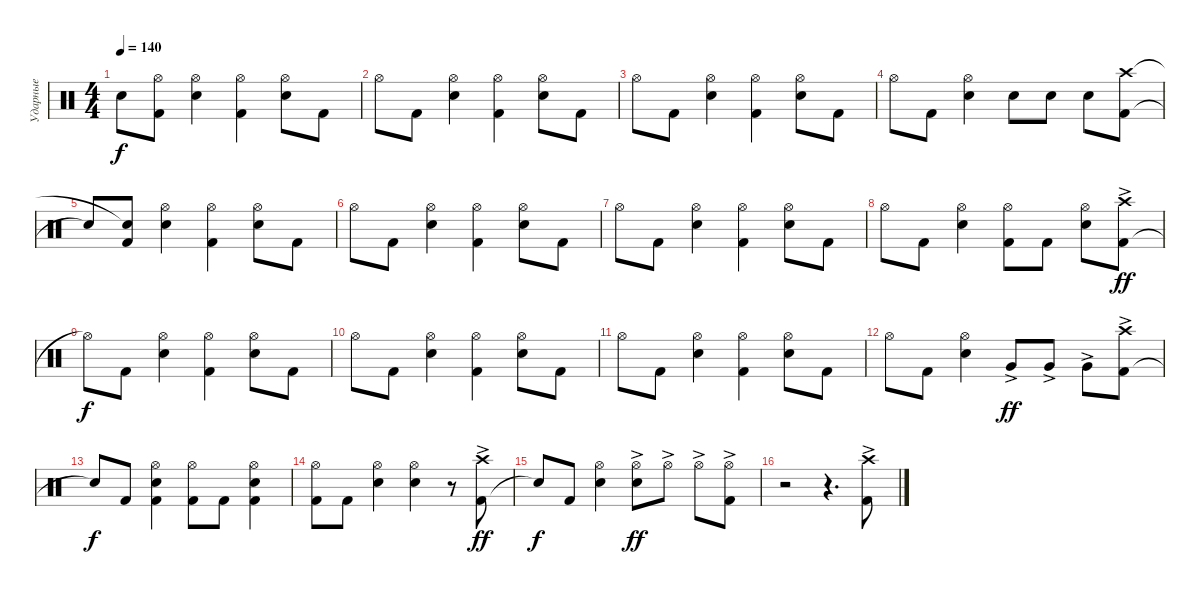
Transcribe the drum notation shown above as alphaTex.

\track ("Ударные" "Ударные") {instrument percussion}
\staff {score}
\articulation defaults
\ts (4 4)
\tempo 140
\clef neutral
\ks c "Snare (hit)"{t}.8{dy f}
("Kick (hit) 2" "Hi-Hat (open)"{t}).8 ("Snare (hit) 2" "Hi-Hat (open)").4 ("Kick (hit) 2" "Hi-Hat (open)").4 ("Snare (hit) 2" "Hi-Hat (open)").8 "Kick (hit) 2".8 |
"Hi-Hat (open)".8 "Kick (hit) 2".8 ("Snare (hit) 2" "Hi-Hat (open)").4 ("Kick (hit) 2" "Hi-Hat (open)").4 ("Snare (hit) 2" "Hi-Hat (open)").8 "Kick (hit) 2".8 |
"Hi-Hat (open)".8 "Kick (hit) 2".8 ("Snare (hit) 2" "Hi-Hat (open)").4 ("Kick (hit) 2" "Hi-Hat (open)").4 ("Snare (hit) 2" "Hi-Hat (open)").8 "Kick (hit) 2".8 |
"Hi-Hat (open)".8 "Kick (hit) 2".8 ("Snare (hit) 2" "Hi-Hat (open)").4 "Snare (hit) 2".8 "Snare (hit) 2".8 "Snare (hit) 2".8 ("Kick (hit) 2" "Crash high (hit)").8 |
"Snare (hit)"{t}.8 ("Kick (hit) 2" "Snare (hit)"{t}).8 ("Snare (hit) 2" "Hi-Hat (open)").4 ("Kick (hit) 2" "Hi-Hat (open)").4 ("Snare (hit) 2" "Hi-Hat (open)").8 "Kick (hit) 2".8 |
"Hi-Hat (open)".8 "Kick (hit) 2".8 ("Snare (hit) 2" "Hi-Hat (open)").4 ("Kick (hit) 2" "Hi-Hat (open)").4 ("Snare (hit) 2" "Hi-Hat (open)").8 "Kick (hit) 2".8 |
"Hi-Hat (open)".8 "Kick (hit) 2".8 ("Snare (hit) 2" "Hi-Hat (open)").4 ("Kick (hit) 2" "Hi-Hat (open)").4 ("Snare (hit) 2" "Hi-Hat (open)").8 "Kick (hit) 2".8 |
"Hi-Hat (open)".8 "Kick (hit) 2".8 ("Snare (hit) 2" "Hi-Hat (open)").4 ("Kick (hit) 2" "Hi-Hat (open)").8 "Kick (hit) 2".8 ("Snare (hit) 2" "Hi-Hat (open)").8 ("Kick (hit) 2" "Crash high (hit)"{ac}).8{dy ff} |
"Hi-Hat (open)"{t}.8{dy f} "Kick (hit) 2".8 ("Snare (hit) 2" "Hi-Hat (open)").4 ("Kick (hit) 2" "Hi-Hat (open)").4 ("Snare (hit) 2" "Hi-Hat (open)").8 "Kick (hit) 2".8 |
"Hi-Hat (open)".8 "Kick (hit) 2".8 ("Snare (hit) 2" "Hi-Hat (open)").4 ("Kick (hit) 2" "Hi-Hat (open)").4 ("Snare (hit) 2" "Hi-Hat (open)").8 "Kick (hit) 2".8 |
"Hi-Hat (open)".8 "Kick (hit) 2".8 ("Snare (hit) 2" "Hi-Hat (open)").4 ("Kick (hit) 2" "Hi-Hat (open)").4 ("Snare (hit) 2" "Hi-Hat (open)").8 "Kick (hit) 2".8 |
"Hi-Hat (open)".8 "Kick (hit) 2".8 ("Snare (hit) 2" "Hi-Hat (open)").4 "Very Low Tom (hit)"{ac}.8{dy ff} "Very Low Tom (hit)"{ac}.8 "Very Low Tom (hit)"{ac}.8 ("Kick (hit) 2"{ac} "Crash high (hit)"{ac}).8 |
"Snare (hit)"{t}.8{dy f} "Kick (hit) 2".8 ("Kick (hit) 2" "Snare (hit) 2" "Hi-Hat (open)").4 ("Kick (hit) 2" "Hi-Hat (open)").8 "Kick (hit) 2".8 ("Kick (hit) 2" "Snare (hit) 2" "Hi-Hat (open)").4 |
("Kick (hit) 2" "Hi-Hat (open)").8 "Kick (hit) 2".8 ("Snare (hit) 2" "Hi-Hat (open)").4 ("Snare (hit) 2" "Hi-Hat (open)").4 r.8 ("Kick (hit) 2"{ac} "Crash high (hit)"{ac}).8{dy ff} |
"Snare (hit)"{t}.8{dy f} "Kick (hit) 2".8 ("Snare (hit) 2" "Hi-Hat (open)").4 ("Snare (hit) 2" "Hi-Hat (open)"{ac}).8{dy ff} "Hi-Hat (open)"{ac}.8 "Hi-Hat (open)"{ac}.8 ("Kick (hit) 2"{ac} "Hi-Hat (open)"{ac}).8 |
r.2 r.4{d} ("Crash high (hit)"{ac} "Kick (hit) 2"{ac}).8
